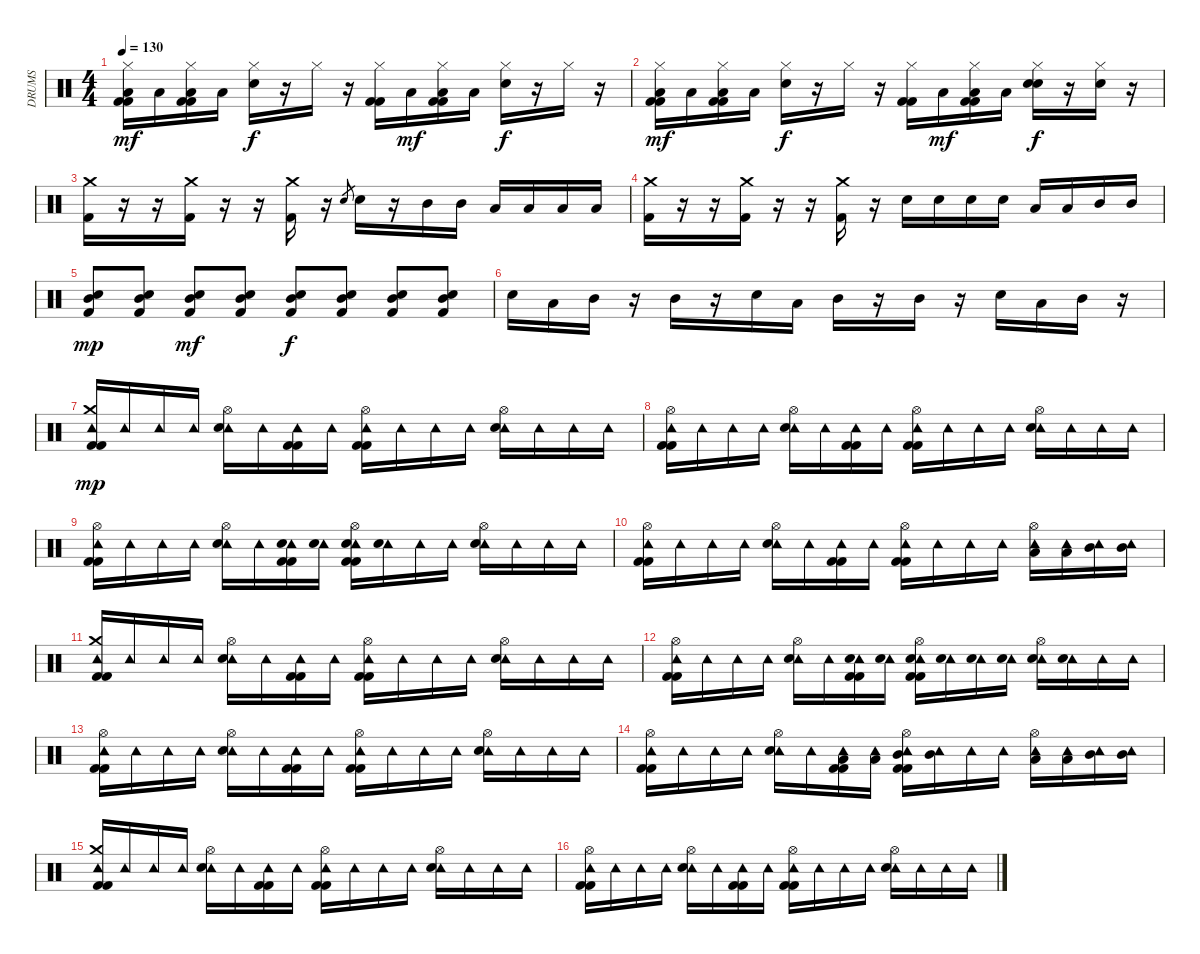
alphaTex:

\track ("DRUMS" "DRUMS") {instrument percussion}
\staff {score}
\articulation defaults
\ts (4 4)
\tempo 130
\clef neutral
\ks c
("Hi-Hat (closed)" "Low Tom (hit)" "Kick (hit) 2" "Kick (hit) 2").16{dy mf} "Low Tom (hit)".16 ("Hi-Hat (closed)" "Low Tom (hit)" "Kick (hit) 2" "Kick (hit) 2").16 "Low Tom (hit)".16 ("Hi-Hat (closed)" "Snare (hit) 2").16{dy f} r.16 "Hi-Hat (closed)".16 r.16 ("Hi-Hat (closed)" "Kick (hit) 2" "Kick (hit) 2").16 "Low Tom (hit)".16{dy mf} ("Hi-Hat (closed)" "Low Tom (hit)" "Kick (hit) 2" "Kick (hit) 2").16 "Low Tom (hit)".16 ("Hi-Hat (closed)" "Snare (hit) 2").16{dy f} r.16 "Hi-Hat (closed)".16 r.16 |
("Hi-Hat (closed)" "Low Tom (hit)" "Kick (hit) 2" "Kick (hit) 2").16{dy mf} "Low Tom (hit)".16 ("Hi-Hat (closed)" "Low Tom (hit)" "Kick (hit) 2" "Kick (hit) 2").16 "Low Tom (hit)".16 ("Hi-Hat (closed)" "Snare (hit) 2").16{dy f} r.16 "Hi-Hat (closed)".16 r.16 ("Hi-Hat (closed)" "Kick (hit) 2" "Kick (hit) 2").16 "Low Tom (hit)".16{dy mf} ("Hi-Hat (closed)" "Low Tom (hit)" "Kick (hit) 2" "Kick (hit) 2").16 "Low Tom (hit)".16 ("Hi-Hat (closed)" "Electric Snare (hit)" "Snare (hit) 2").16{dy f} r.16 ("Hi-Hat (closed)" "Electric Snare (hit)").16 r.16 |
("Crash medium (hit)" "Kick (hit) 2").16 r.16 r.16 ("Crash medium (hit)" "Kick (hit) 2").16 r.16 r.16 ("Crash medium (hit)" "Kick (hit) 2").16 r.16 "Electric Snare (hit)".8{gr} "Electric Snare (hit)".16 r.16 "Mid Tom (hit)".16 "Mid Tom (hit)".16 "Low Tom (hit)".16 "Low Tom (hit)".16 "Low Tom (hit)".16 "Low Tom (hit)".16 |
("Crash medium (hit)" "Kick (hit) 2").16 r.16 r.16 ("Crash medium (hit)" "Kick (hit) 2").16 r.16 r.16 ("Crash medium (hit)" "Kick (hit) 2").16 r.16 "Electric Snare (hit)".16 "Electric Snare (hit)".16 "Electric Snare (hit)".16 "Electric Snare (hit)".16 "Low Tom (hit)".16 "Low Tom (hit)".16 "Mid Tom (hit)".16 "Mid Tom (hit)".16 |
("Snare (hit) 2" "Mid Tom (hit)" "Kick (hit) 2").8{dy mp} ("Snare (hit) 2" "Mid Tom (hit)" "Kick (hit) 2").8 ("Snare (hit) 2" "Mid Tom (hit)" "Kick (hit) 2").8{dy mf} ("Snare (hit) 2" "Mid Tom (hit)" "Kick (hit) 2").8 ("Snare (hit) 2" "Mid Tom (hit)" "Kick (hit) 2").8{dy f} ("Snare (hit) 2" "Mid Tom (hit)" "Kick (hit) 2").8 ("Snare (hit) 2" "Mid Tom (hit)" "Kick (hit) 2").8 ("Snare (hit) 2" "Mid Tom (hit)" "Kick (hit) 2").8 |
"Electric Snare (hit)".16 "Low Tom (hit)".16 "Mid Tom (hit)".16 r.16 "Mid Tom (hit)".16 r.16 "Electric Snare (hit)".16 "Low Tom (hit)".16 "Mid Tom (hit)".16 r.16 "Mid Tom (hit)".16 r.16 "Electric Snare (hit)".16 "Low Tom (hit)".16 "Mid Tom (hit)".16 r.16 |
("Crash medium (hit)" "Tambourine (hit)" "Kick (hit) 2" "Kick (hit) 2").16{dy mp} "Tambourine (hit)".16 "Tambourine (hit)".16 "Tambourine (hit)".16 ("Hi-Hat (open)" "Tambourine (hit)" "Snare (hit) 2").16 "Tambourine (hit)".16 ("Tambourine (hit)" "Kick (hit) 2" "Kick (hit) 2").16 "Tambourine (hit)".16 ("Hi-Hat (open)" "Tambourine (hit)" "Kick (hit) 2" "Kick (hit) 2").16 "Tambourine (hit)".16 "Tambourine (hit)".16 "Tambourine (hit)".16 ("Hi-Hat (open)" "Tambourine (hit)" "Snare (hit) 2").16 "Tambourine (hit)".16 "Tambourine (hit)".16 "Tambourine (hit)".16 |
("Hi-Hat (open)" "Tambourine (hit)" "Kick (hit) 2" "Kick (hit) 2").16 "Tambourine (hit)".16 "Tambourine (hit)".16 "Tambourine (hit)".16 ("Hi-Hat (open)" "Tambourine (hit)" "Snare (hit) 2").16 "Tambourine (hit)".16 ("Tambourine (hit)" "Kick (hit) 2" "Kick (hit) 2").16 "Tambourine (hit)".16 ("Hi-Hat (open)" "Tambourine (hit)" "Kick (hit) 2" "Kick (hit) 2").16 "Tambourine (hit)".16 "Tambourine (hit)".16 "Tambourine (hit)".16 ("Hi-Hat (open)" "Tambourine (hit)" "Snare (hit) 2").16 "Tambourine (hit)".16 "Tambourine (hit)".16 "Tambourine (hit)".16 |
("Hi-Hat (open)" "Tambourine (hit)" "Kick (hit) 2" "Kick (hit) 2").16 "Tambourine (hit)".16 "Tambourine (hit)".16 "Tambourine (hit)".16 ("Hi-Hat (open)" "Tambourine (hit)" "Snare (hit) 2").16 "Tambourine (hit)".16 ("Tambourine (hit)" "Electric Snare (hit)" "Kick (hit) 2" "Kick (hit) 2").16 ("Tambourine (hit)" "Electric Snare (hit)").16 ("Hi-Hat (open)" "Tambourine (hit)" "Electric Snare (hit)" "Kick (hit) 2" "Kick (hit) 2").16 ("Tambourine (hit)" "Snare (hit) 2").16 "Tambourine (hit)".16 "Tambourine (hit)".16 ("Hi-Hat (open)" "Tambourine (hit)" "Snare (hit) 2").16 "Tambourine (hit)".16 "Tambourine (hit)".16 "Tambourine (hit)".16 |
("Hi-Hat (open)" "Tambourine (hit)" "Kick (hit) 2" "Kick (hit) 2").16 "Tambourine (hit)".16 "Tambourine (hit)".16 "Tambourine (hit)".16 ("Hi-Hat (open)" "Tambourine (hit)" "Snare (hit) 2").16 "Tambourine (hit)".16 ("Tambourine (hit)" "Kick (hit) 2" "Kick (hit) 2").16 "Tambourine (hit)".16 ("Hi-Hat (open)" "Tambourine (hit)" "Kick (hit) 2" "Kick (hit) 2").16 "Tambourine (hit)".16 "Tambourine (hit)".16 "Tambourine (hit)".16 ("Hi-Hat (open)" "Tambourine (hit)" "Low Tom (hit)").16 ("Tambourine (hit)" "Low Tom (hit)").16 ("Tambourine (hit)" "Mid Tom (hit)").16 ("Tambourine (hit)" "Mid Tom (hit)").16 |
("Crash medium (hit)" "Tambourine (hit)" "Kick (hit) 2" "Kick (hit) 2").16 "Tambourine (hit)".16 "Tambourine (hit)".16 "Tambourine (hit)".16 ("Hi-Hat (open)" "Tambourine (hit)" "Snare (hit) 2").16 "Tambourine (hit)".16 ("Tambourine (hit)" "Kick (hit) 2" "Kick (hit) 2").16 "Tambourine (hit)".16 ("Hi-Hat (open)" "Tambourine (hit)" "Kick (hit) 2" "Kick (hit) 2").16 "Tambourine (hit)".16 "Tambourine (hit)".16 "Tambourine (hit)".16 ("Hi-Hat (open)" "Tambourine (hit)" "Snare (hit) 2").16 "Tambourine (hit)".16 "Tambourine (hit)".16 "Tambourine (hit)".16 |
("Hi-Hat (open)" "Tambourine (hit)" "Kick (hit) 2" "Kick (hit) 2").16 "Tambourine (hit)".16 "Tambourine (hit)".16 "Tambourine (hit)".16 ("Hi-Hat (open)" "Tambourine (hit)" "Snare (hit) 2").16 "Tambourine (hit)".16 ("Tambourine (hit)" "Electric Snare (hit)" "Kick (hit) 2" "Kick (hit) 2").16 ("Tambourine (hit)" "Electric Snare (hit)").16 ("Hi-Hat (open)" "Tambourine (hit)" "Electric Snare (hit)" "Kick (hit) 2" "Kick (hit) 2").16 ("Tambourine (hit)" "Snare (hit) 2").16 ("Tambourine (hit)" "Electric Snare (hit)").16 ("Tambourine (hit)" "Electric Snare (hit)").16 ("Hi-Hat (open)" "Tambourine (hit)" "Electric Snare (hit)").16 ("Tambourine (hit)" "Snare (hit) 2").16 "Tambourine (hit)".16 "Tambourine (hit)".16 |
("Hi-Hat (open)" "Tambourine (hit)" "Kick (hit) 2" "Kick (hit) 2").16 "Tambourine (hit)".16 "Tambourine (hit)".16 "Tambourine (hit)".16 ("Hi-Hat (open)" "Tambourine (hit)" "Snare (hit) 2").16 "Tambourine (hit)".16 ("Tambourine (hit)" "Kick (hit) 2" "Kick (hit) 2").16 "Tambourine (hit)".16 ("Hi-Hat (open)" "Tambourine (hit)" "Kick (hit) 2" "Kick (hit) 2").16 "Tambourine (hit)".16 "Tambourine (hit)".16 "Tambourine (hit)".16 ("Hi-Hat (open)" "Tambourine (hit)" "Snare (hit) 2").16 "Tambourine (hit)".16 "Tambourine (hit)".16 "Tambourine (hit)".16 |
("Hi-Hat (open)" "Tambourine (hit)" "Kick (hit) 2" "Kick (hit) 2").16 "Tambourine (hit)".16 "Tambourine (hit)".16 "Tambourine (hit)".16 ("Hi-Hat (open)" "Tambourine (hit)" "Snare (hit) 2").16 "Tambourine (hit)".16 ("Tambourine (hit)" "Low Tom (hit)" "Kick (hit) 2" "Kick (hit) 2").16 ("Tambourine (hit)" "Low Tom (hit)").16 ("Hi-Hat (open)" "Tambourine (hit)" "Mid Tom (hit)" "Kick (hit) 2" "Kick (hit) 2").16 ("Tambourine (hit)" "Mid Tom (hit)").16 "Tambourine (hit)".16 "Tambourine (hit)".16 ("Hi-Hat (open)" "Tambourine (hit)" "Low Tom (hit)").16 ("Tambourine (hit)" "Low Tom (hit)").16 ("Tambourine (hit)" "Mid Tom (hit)").16 ("Tambourine (hit)" "Mid Tom (hit)").16 |
("Crash medium (hit)" "Tambourine (hit)" "Kick (hit) 2" "Kick (hit) 2").16 "Tambourine (hit)".16 "Tambourine (hit)".16 "Tambourine (hit)".16 ("Hi-Hat (open)" "Tambourine (hit)" "Snare (hit) 2").16 "Tambourine (hit)".16 ("Tambourine (hit)" "Kick (hit) 2" "Kick (hit) 2").16 "Tambourine (hit)".16 ("Hi-Hat (open)" "Tambourine (hit)" "Kick (hit) 2" "Kick (hit) 2").16 "Tambourine (hit)".16 "Tambourine (hit)".16 "Tambourine (hit)".16 ("Hi-Hat (open)" "Tambourine (hit)" "Snare (hit) 2").16 "Tambourine (hit)".16 "Tambourine (hit)".16 "Tambourine (hit)".16 |
("Hi-Hat (open)" "Tambourine (hit)" "Kick (hit) 2" "Kick (hit) 2").16 "Tambourine (hit)".16 "Tambourine (hit)".16 "Tambourine (hit)".16 ("Hi-Hat (open)" "Tambourine (hit)" "Snare (hit) 2").16 "Tambourine (hit)".16 ("Tambourine (hit)" "Kick (hit) 2" "Kick (hit) 2").16 "Tambourine (hit)".16 ("Hi-Hat (open)" "Tambourine (hit)" "Kick (hit) 2" "Kick (hit) 2").16 "Tambourine (hit)".16 "Tambourine (hit)".16 "Tambourine (hit)".16 ("Hi-Hat (open)" "Tambourine (hit)" "Snare (hit) 2").16 "Tambourine (hit)".16 "Tambourine (hit)".16 "Tambourine (hit)".16
